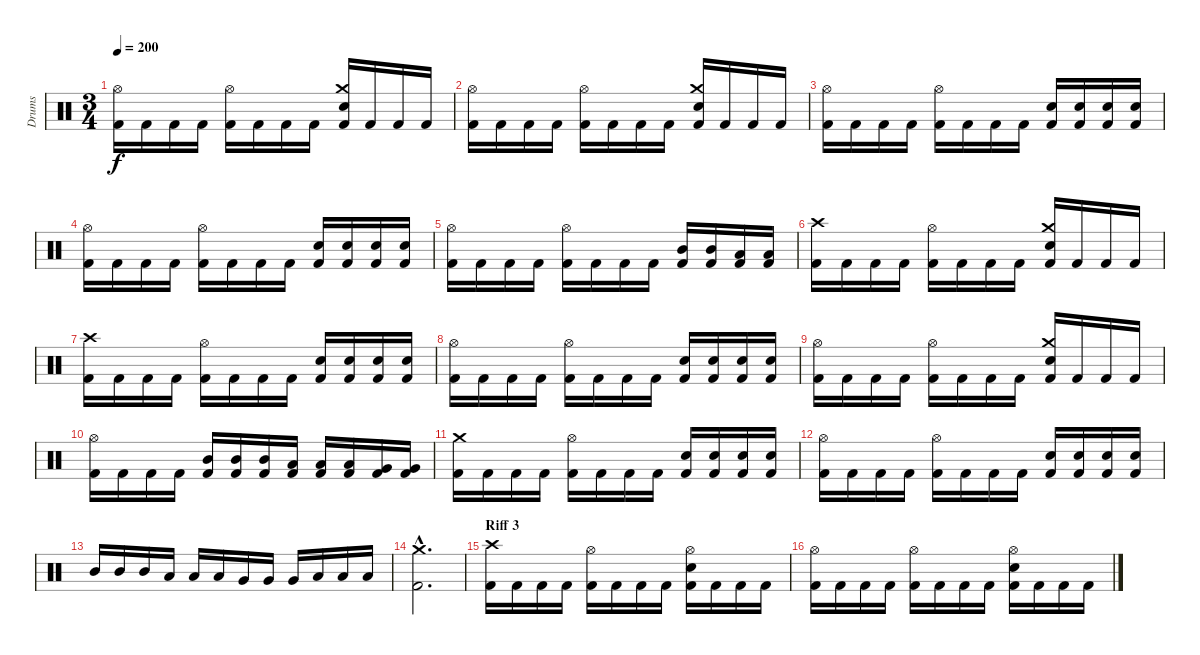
\track ("Drums" "Drums") {instrument percussion}
\staff {score}
\articulation defaults
\ts (3 4)
\tempo 200
\clef neutral
\ks c
("Hi-Hat (open)" "Kick (hit) 2").16{dy f} "Kick (hit) 2".16 "Kick (hit) 2".16 "Kick (hit) 2".16 ("Hi-Hat (open)" "Kick (hit) 2").16 "Kick (hit) 2".16 "Kick (hit) 2".16 "Kick (hit) 2".16 ("Crash medium (hit)" "Electric Snare (hit)" "Kick (hit) 2").16 "Kick (hit) 2".16 "Kick (hit) 2".16 "Kick (hit) 2".16 |
("Hi-Hat (open)" "Kick (hit) 2").16 "Kick (hit) 2".16 "Kick (hit) 2".16 "Kick (hit) 2".16 ("Hi-Hat (open)" "Kick (hit) 2").16 "Kick (hit) 2".16 "Kick (hit) 2".16 "Kick (hit) 2".16 ("Crash medium (hit)" "Electric Snare (hit)" "Kick (hit) 2").16 "Kick (hit) 2".16 "Kick (hit) 2".16 "Kick (hit) 2".16 |
("Hi-Hat (open)" "Kick (hit) 2").16 "Kick (hit) 2".16 "Kick (hit) 2".16 "Kick (hit) 2".16 ("Hi-Hat (open)" "Kick (hit) 2").16 "Kick (hit) 2".16 "Kick (hit) 2".16 "Kick (hit) 2".16 ("Electric Snare (hit)" "Kick (hit) 2").16 ("Electric Snare (hit)" "Kick (hit) 2").16 ("Electric Snare (hit)" "Kick (hit) 2").16 ("Electric Snare (hit)" "Kick (hit) 2").16 |
("Hi-Hat (open)" "Kick (hit) 2").16 "Kick (hit) 2".16 "Kick (hit) 2".16 "Kick (hit) 2".16 ("Hi-Hat (open)" "Kick (hit) 2").16 "Kick (hit) 2".16 "Kick (hit) 2".16 "Kick (hit) 2".16 ("Electric Snare (hit)" "Kick (hit) 2").16 ("Electric Snare (hit)" "Kick (hit) 2").16 ("Electric Snare (hit)" "Kick (hit) 2").16 ("Electric Snare (hit)" "Kick (hit) 2").16 |
("Hi-Hat (open)" "Kick (hit) 2").16 "Kick (hit) 2".16 "Kick (hit) 2".16 "Kick (hit) 2".16 ("Hi-Hat (open)" "Kick (hit) 2").16 "Kick (hit) 2".16 "Kick (hit) 2".16 "Kick (hit) 2".16 ("Mid Tom (hit)" "Kick (hit) 2").16 ("Mid Tom (hit)" "Kick (hit) 2").16 ("Low Tom (hit)" "Kick (hit) 2").16 ("Low Tom (hit)" "Kick (hit) 2").16 |
("Crash high (hit)" "Kick (hit) 2").16 "Kick (hit) 2".16 "Kick (hit) 2".16 "Kick (hit) 2".16 ("Hi-Hat (open)" "Kick (hit) 2").16 "Kick (hit) 2".16 "Kick (hit) 2".16 "Kick (hit) 2".16 ("Crash medium (hit)" "Electric Snare (hit)" "Kick (hit) 2").16 "Kick (hit) 2".16 "Kick (hit) 2".16 "Kick (hit) 2".16 |
("Crash high (hit)" "Kick (hit) 2").16 "Kick (hit) 2".16 "Kick (hit) 2".16 "Kick (hit) 2".16 ("Hi-Hat (open)" "Kick (hit) 2").16 "Kick (hit) 2".16 "Kick (hit) 2".16 "Kick (hit) 2".16 ("Electric Snare (hit)" "Kick (hit) 2").16 ("Electric Snare (hit)" "Kick (hit) 2").16 ("Electric Snare (hit)" "Kick (hit) 2").16 ("Electric Snare (hit)" "Kick (hit) 2").16 |
("Hi-Hat (open)" "Kick (hit) 2").16 "Kick (hit) 2".16 "Kick (hit) 2".16 "Kick (hit) 2".16 ("Hi-Hat (open)" "Kick (hit) 2").16 "Kick (hit) 2".16 "Kick (hit) 2".16 "Kick (hit) 2".16 ("Electric Snare (hit)" "Kick (hit) 2").16 ("Electric Snare (hit)" "Kick (hit) 2").16 ("Electric Snare (hit)" "Kick (hit) 2").16 ("Electric Snare (hit)" "Kick (hit) 2").16 |
("Hi-Hat (open)" "Kick (hit) 2").16 "Kick (hit) 2".16 "Kick (hit) 2".16 "Kick (hit) 2".16 ("Hi-Hat (open)" "Kick (hit) 2").16 "Kick (hit) 2".16 "Kick (hit) 2".16 "Kick (hit) 2".16 ("Crash medium (hit)" "Electric Snare (hit)" "Kick (hit) 2").16 "Kick (hit) 2".16 "Kick (hit) 2".16 "Kick (hit) 2".16 |
("Hi-Hat (open)" "Kick (hit) 2").16 "Kick (hit) 2".16 "Kick (hit) 2".16 "Kick (hit) 2".16 ("Mid Tom (hit)" "Kick (hit) 2").16 ("Mid Tom (hit)" "Kick (hit) 2").16 ("Mid Tom (hit)" "Kick (hit) 2").16 ("Low Tom (hit)" "Kick (hit) 2").16 ("Low Tom (hit)" "Kick (hit) 2").16 ("Low Tom (hit)" "Kick (hit) 2").16 ("Very Low Tom (hit)" "Kick (hit) 2").16 ("Very Low Tom (hit)" "Kick (hit) 2").16 |
("Crash medium (hit)" "Kick (hit) 2").16 "Kick (hit) 2".16 "Kick (hit) 2".16 "Kick (hit) 2".16 ("Hi-Hat (open)" "Kick (hit) 2").16 "Kick (hit) 2".16 "Kick (hit) 2".16 "Kick (hit) 2".16 ("Electric Snare (hit)" "Kick (hit) 2").16 ("Electric Snare (hit)" "Kick (hit) 2").16 ("Electric Snare (hit)" "Kick (hit) 2").16 ("Electric Snare (hit)" "Kick (hit) 2").16 |
("Hi-Hat (open)" "Kick (hit) 2").16 "Kick (hit) 2".16 "Kick (hit) 2".16 "Kick (hit) 2".16 ("Hi-Hat (open)" "Kick (hit) 2").16 "Kick (hit) 2".16 "Kick (hit) 2".16 "Kick (hit) 2".16 ("Electric Snare (hit)" "Kick (hit) 2").16 ("Electric Snare (hit)" "Kick (hit) 2").16 ("Electric Snare (hit)" "Kick (hit) 2").16 ("Electric Snare (hit)" "Kick (hit) 2").16 |
"Mid Tom (hit)".16 "Mid Tom (hit)".16 "Mid Tom (hit)".16 "Low Tom (hit)".16 "Low Tom (hit)".16 "Low Tom (hit)".16 "Very Low Tom (hit)".16 "Very Low Tom (hit)".16 "Very Low Tom (hit)".16 "Low Floor Tom (hit)".16 "Low Floor Tom (hit)".16 "Low Floor Tom (hit)".16 |
("Crash medium (hit)"{hac} "Kick (hit) 2"{hac}).2{d} |
\section ("" "Riff 3")
("Crash high (hit)" "Kick (hit) 2").16 "Kick (hit) 2".16 "Kick (hit) 2".16 "Kick (hit) 2".16 ("Hi-Hat (open)" "Kick (hit) 2").16 "Kick (hit) 2".16 "Kick (hit) 2".16 "Kick (hit) 2".16 ("Hi-Hat (open)" "Electric Snare (hit)" "Kick (hit) 2").16 "Kick (hit) 2".16 "Kick (hit) 2".16 "Kick (hit) 2".16 |
("Hi-Hat (open)" "Kick (hit) 2").16 "Kick (hit) 2".16 "Kick (hit) 2".16 "Kick (hit) 2".16 ("Hi-Hat (open)" "Kick (hit) 2").16 "Kick (hit) 2".16 "Kick (hit) 2".16 "Kick (hit) 2".16 ("Hi-Hat (open)" "Electric Snare (hit)" "Kick (hit) 2").16 "Kick (hit) 2".16 "Kick (hit) 2".16 "Kick (hit) 2".16
